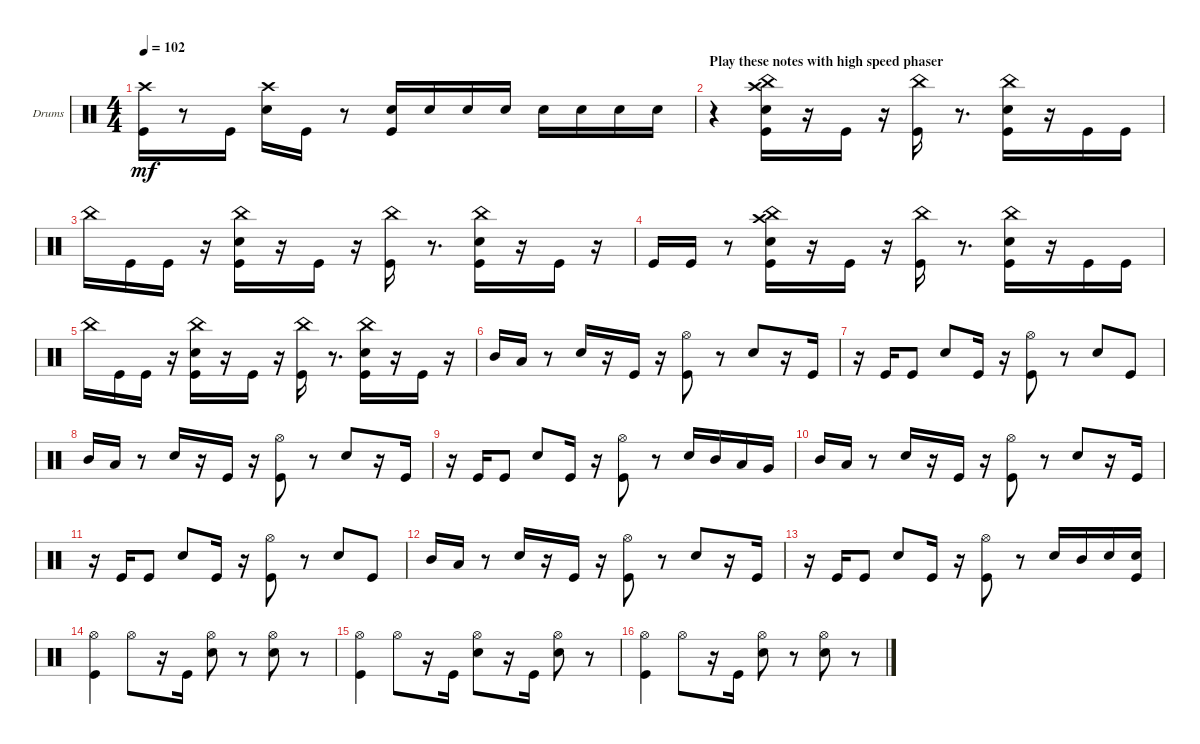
\defaultSystemsLayout 4
\bracketExtendMode groupsimilarinstruments
\firstSystemTrackNameOrientation horizontal
\otherSystemsTrackNameOrientation horizontal
\track ("Drumkit" "Drums") {instrument percussion}
\staff {score}
\articulation defaults
\ts (4 4)
\tempo 102
\clef neutral
\scale
0.333333
\ks c
("Crash high (hit)" "Kick (hit)").16{dy mf} r.8 "Kick (hit)".16 ("Crash high (hit)" "Snare (hit) 2").16 "Kick (hit)".16 r.8 ("Snare (hit) 2" "Kick (hit)").16 "Snare (hit) 2".16 "Snare (hit) 2".16 "Snare (hit) 2".16 "Snare (hit) 2".16 "Snare (hit) 2".16 "Snare (hit) 2".16 "Snare (hit) 2".16 |
\section ("" "Play these notes with high speed phaser")
\scale
0.333333 r.4 ("China (hit)" "Crash high (hit)" "Snare (hit) 2" "Kick (hit)").16 r.16 "Kick (hit)".16 r.16 ("China (hit)" "Kick (hit)").16 r.8{d} ("China (hit)" "Snare (hit) 2" "Kick (hit)").16 r.16 "Kick (hit)".16 "Kick (hit)".16 |
\scale
0.333333 "China (hit)".16 "Kick (hit)".16 "Kick (hit)".16 r.16 ("China (hit)" "Snare (hit) 2" "Kick (hit)").16 r.16 "Kick (hit)".16 r.16 ("China (hit)" "Kick (hit)").16 r.8{d} ("China (hit)" "Snare (hit) 2" "Kick (hit)").16 r.16 "Kick (hit)".16 r.16 |
\scale
0.333333 "Kick (hit)".16 "Kick (hit)".16 r.8 ("China (hit)" "Crash high (hit)" "Snare (hit) 2" "Kick (hit)").16 r.16 "Kick (hit)".16 r.16 ("China (hit)" "Kick (hit)").16 r.8{d} ("China (hit)" "Snare (hit) 2" "Kick (hit)").16 r.16 "Kick (hit)".16 "Kick (hit)".16 |
\scale
0.333333 "China (hit)".16 "Kick (hit)".16 "Kick (hit)".16 r.16 ("China (hit)" "Snare (hit) 2" "Kick (hit)").16 r.16 "Kick (hit)".16 r.16 ("China (hit)" "Kick (hit)").16 r.8{d} ("China (hit)" "Snare (hit) 2" "Kick (hit)").16 r.16 "Kick (hit)".16 r.16 |
\scale
0.333333 "Mid Tom (hit)".16 "Low Tom (hit)".16 r.8 "Snare (hit) 2".16 r.16 "Kick (hit)".16 r.16 ("Hi-Hat (open)" "Kick (hit)").8 r.8 "Snare (hit) 2".8 r.16 "Kick (hit)".16 |
\scale
0.333333 r.16 "Kick (hit)".16 "Kick (hit)".8 "Snare (hit) 2".8 "Kick (hit)".16 r.16 ("Hi-Hat (open)" "Kick (hit)").8 r.8 "Snare (hit) 2".8 "Kick (hit)".8 |
\scale
0.333333 "Mid Tom (hit)".16 "Low Tom (hit)".16 r.8 "Snare (hit) 2".16 r.16 "Kick (hit)".16 r.16 ("Hi-Hat (open)" "Kick (hit)").8 r.8 "Snare (hit) 2".8 r.16 "Kick (hit)".16 |
\scale
0.333333 r.16 "Kick (hit)".16 "Kick (hit)".8 "Snare (hit) 2".8 "Kick (hit)".16 r.16 ("Hi-Hat (open)" "Kick (hit)").8 r.8 "Snare (hit) 2".16 "Mid Tom (hit)".16 "Low Tom (hit)".16 "Very Low Tom (hit)".16 |
\scale
0.333333 "Mid Tom (hit)".16 "Low Tom (hit)".16 r.8 "Snare (hit) 2".16 r.16 "Kick (hit)".16 r.16 ("Hi-Hat (open)" "Kick (hit)").8 r.8 "Snare (hit) 2".8 r.16 "Kick (hit)".16 |
\scale
0.333333 r.16 "Kick (hit)".16 "Kick (hit)".8 "Snare (hit) 2".8 "Kick (hit)".16 r.16 ("Hi-Hat (open)" "Kick (hit)").8 r.8 "Snare (hit) 2".8 "Kick (hit)".8 |
\scale
0.333333 "Mid Tom (hit)".16 "Low Tom (hit)".16 r.8 "Snare (hit) 2".16 r.16 "Kick (hit)".16 r.16 ("Hi-Hat (open)" "Kick (hit)").8 r.8 "Snare (hit) 2".8 r.16 "Kick (hit)".16 |
\scale
0.333333 r.16 "Kick (hit)".16 "Kick (hit)".8 "Snare (hit) 2".8 "Kick (hit)".16 r.16 ("Hi-Hat (open)" "Kick (hit)").8 r.8 "Snare (hit) 2".16 "Mid Tom (hit)".16 "Snare (hit) 2".16 ("Kick (hit)" "Snare (hit) 2").16 |
\scale
0.333333 ("Hi-Hat (open)" "Kick (hit)").4 "Hi-Hat (open)".8 r.16 "Kick (hit)".16 ("Hi-Hat (open)" "Snare (hit) 2").8 r.8 ("Hi-Hat (open)" "Snare (hit) 2").8 r.8 |
\scale
0.333333 ("Hi-Hat (open)" "Kick (hit)").4 "Hi-Hat (open)".8 r.16 "Kick (hit)".16 ("Hi-Hat (open)" "Snare (hit) 2").8 r.16 "Kick (hit)".16 ("Hi-Hat (open)" "Snare (hit) 2").8 r.8 |
\scale
0.333333 ("Hi-Hat (open)" "Kick (hit)").4 "Hi-Hat (open)".8 r.16 "Kick (hit)".16 ("Hi-Hat (open)" "Snare (hit) 2").8 r.8 ("Hi-Hat (open)" "Snare (hit) 2").8 r.8
